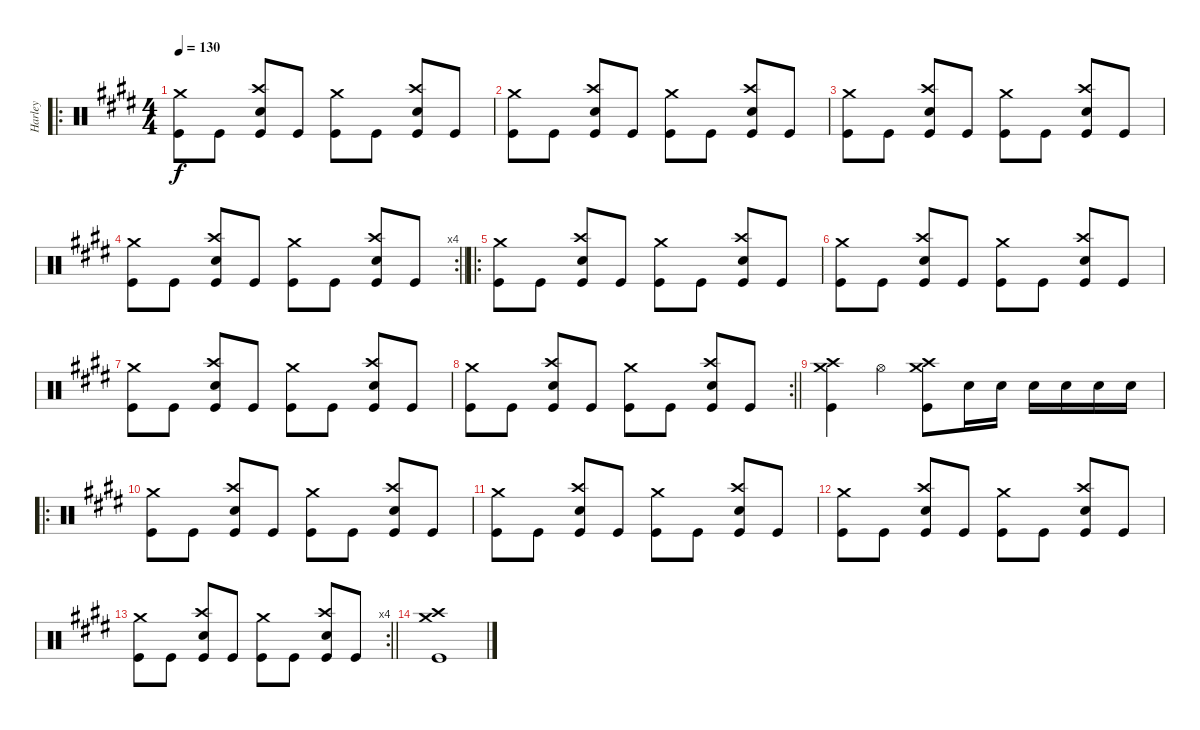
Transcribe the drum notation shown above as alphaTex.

\track ("Harley" "Harley") {instrument percussion}
\staff {score}
\articulation defaults
\ro
\ts (4 4)
\tempo 130
\clef neutral
\ks c#minor
("Crash medium (hit)" "Kick (hit)").8{dy f} "Kick (hit)".8 ("Crash high (hit)" "Snare (hit) 2" "Kick (hit)").8 "Kick (hit)".8 ("Crash medium (hit)" "Kick (hit)").8 "Kick (hit)".8 ("Crash high (hit)" "Snare (hit) 2" "Kick (hit)").8 "Kick (hit)".8 |
("Crash medium (hit)" "Kick (hit)").8 "Kick (hit)".8 ("Crash high (hit)" "Snare (hit) 2" "Kick (hit)").8 "Kick (hit)".8 ("Crash medium (hit)" "Kick (hit)").8 "Kick (hit)".8 ("Crash high (hit)" "Snare (hit) 2" "Kick (hit)").8 "Kick (hit)".8 |
("Crash medium (hit)" "Kick (hit)").8 "Kick (hit)".8 ("Crash high (hit)" "Snare (hit) 2" "Kick (hit)").8 "Kick (hit)".8 ("Crash medium (hit)" "Kick (hit)").8 "Kick (hit)".8 ("Crash high (hit)" "Snare (hit) 2" "Kick (hit)").8 "Kick (hit)".8 |
\rc 4
\barLineRight lightlight
("Crash medium (hit)" "Kick (hit)").8 "Kick (hit)".8 ("Crash high (hit)" "Snare (hit) 2" "Kick (hit)").8 "Kick (hit)".8 ("Crash medium (hit)" "Kick (hit)").8 "Kick (hit)".8 ("Crash high (hit)" "Snare (hit) 2" "Kick (hit)").8 "Kick (hit)".8 |
\ro
("Crash medium (hit)" "Kick (hit)").8 "Kick (hit)".8 ("Crash high (hit)" "Snare (hit) 2" "Kick (hit)").8 "Kick (hit)".8 ("Crash medium (hit)" "Kick (hit)").8 "Kick (hit)".8 ("Crash high (hit)" "Snare (hit) 2" "Kick (hit)").8 "Kick (hit)".8 |
("Crash medium (hit)" "Kick (hit)").8 "Kick (hit)".8 ("Crash high (hit)" "Snare (hit) 2" "Kick (hit)").8 "Kick (hit)".8 ("Crash medium (hit)" "Kick (hit)").8 "Kick (hit)".8 ("Crash high (hit)" "Snare (hit) 2" "Kick (hit)").8 "Kick (hit)".8 |
("Crash medium (hit)" "Kick (hit)").8 "Kick (hit)".8 ("Crash high (hit)" "Snare (hit) 2" "Kick (hit)").8 "Kick (hit)".8 ("Crash medium (hit)" "Kick (hit)").8 "Kick (hit)".8 ("Crash high (hit)" "Snare (hit) 2" "Kick (hit)").8 "Kick (hit)".8 |
\rc 2
\barLineRight lightlight
("Crash medium (hit)" "Kick (hit)").8 "Kick (hit)".8 ("Crash high (hit)" "Snare (hit) 2" "Kick (hit)").8 "Kick (hit)".8 ("Crash medium (hit)" "Kick (hit)").8 "Kick (hit)".8 ("Crash high (hit)" "Snare (hit) 2" "Kick (hit)").8 "Kick (hit)".8 |
("Crash medium (hit)" "Crash high (hit)" "Kick (hit)").4 "Hi-Hat (open)".4 ("Crash medium (hit)" "Crash high (hit)" "Kick (hit)").8 "Snare (hit) 2".16 "Snare (hit) 2".16 "Snare (hit) 2".16 "Snare (hit) 2".16 "Snare (hit) 2".16 "Snare (hit) 2".16 |
\ro
\ks e
("Crash medium (hit)" "Kick (hit)").8 "Kick (hit)".8 ("Crash high (hit)" "Snare (hit) 2" "Kick (hit)").8 "Kick (hit)".8 ("Crash medium (hit)" "Kick (hit)").8 "Kick (hit)".8 ("Crash high (hit)" "Snare (hit) 2" "Kick (hit)").8 "Kick (hit)".8 |
("Crash medium (hit)" "Kick (hit)").8 "Kick (hit)".8 ("Crash high (hit)" "Snare (hit) 2" "Kick (hit)").8 "Kick (hit)".8 ("Crash medium (hit)" "Kick (hit)").8 "Kick (hit)".8 ("Crash high (hit)" "Snare (hit) 2" "Kick (hit)").8 "Kick (hit)".8 |
("Crash medium (hit)" "Kick (hit)").8 "Kick (hit)".8 ("Crash high (hit)" "Snare (hit) 2" "Kick (hit)").8 "Kick (hit)".8 ("Crash medium (hit)" "Kick (hit)").8 "Kick (hit)".8 ("Crash high (hit)" "Snare (hit) 2" "Kick (hit)").8 "Kick (hit)".8 |
\rc 4
\barLineRight lightlight
("Crash medium (hit)" "Kick (hit)").8 "Kick (hit)".8 ("Crash high (hit)" "Snare (hit) 2" "Kick (hit)").8 "Kick (hit)".8 ("Crash medium (hit)" "Kick (hit)").8 "Kick (hit)".8 ("Crash high (hit)" "Snare (hit) 2" "Kick (hit)").8 "Kick (hit)".8 |
("Crash medium (hit)" "Crash high (hit)" "Kick (hit)").1
